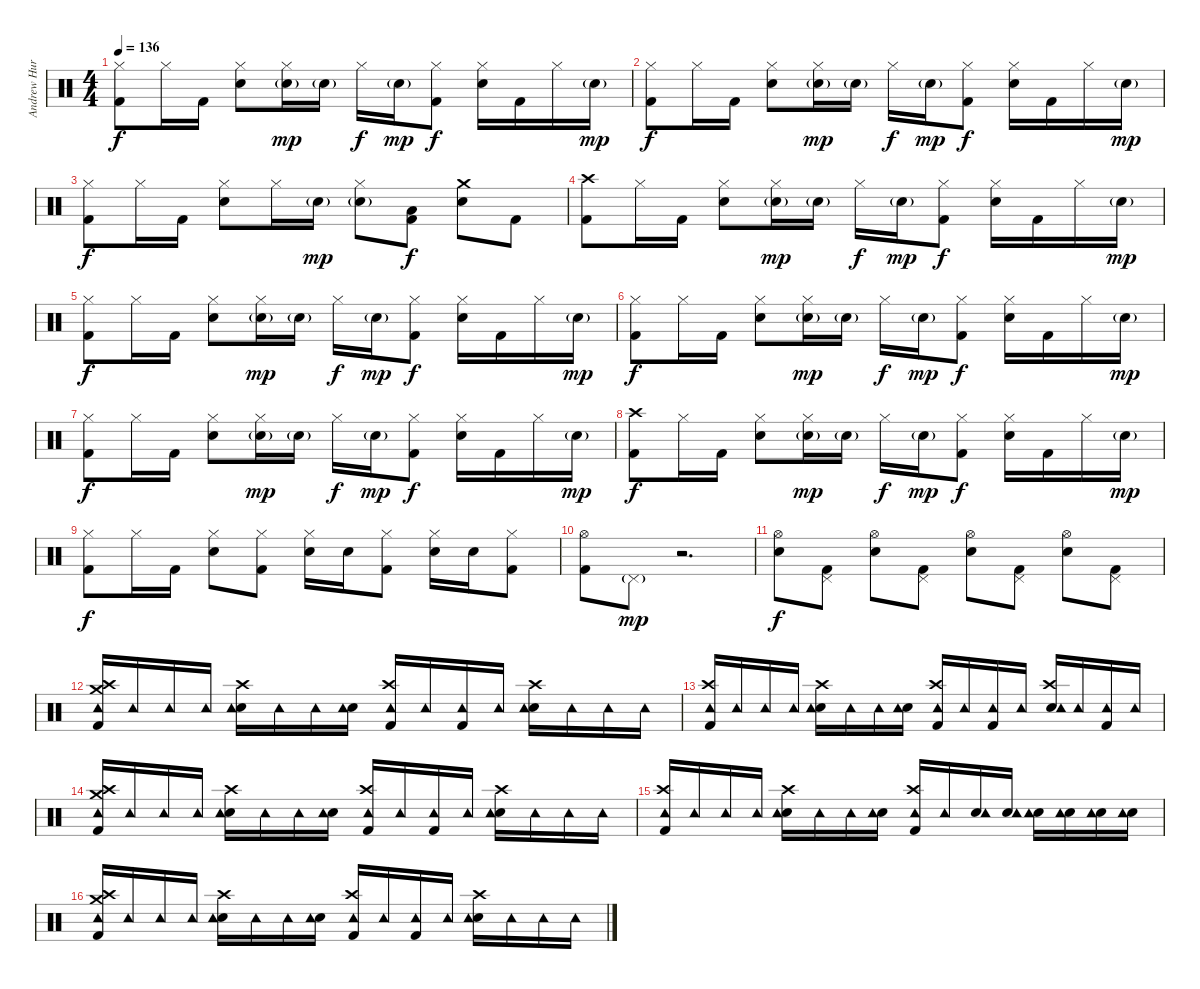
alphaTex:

\track ("Andrew Hurley (Drums)" "Andrew Hur") {instrument percussion}
\staff {score}
\articulation defaults
\ts (4 4)
\tempo 136
\clef neutral
\ks c
("Hi-Hat (closed)" "Kick (hit) 2").8{dy f} "Hi-Hat (closed)".16 "Kick (hit) 2".16 ("Hi-Hat (closed)" "Snare (hit) 2").8 ("Hi-Hat (closed)" "Snare (hit) 2"{g}).16{dy mp} "Snare (hit) 2"{g}.16 "Hi-Hat (closed)".16{dy f} "Snare (hit) 2"{g}.16{dy mp} ("Hi-Hat (closed)" "Kick (hit) 2").8{dy f} ("Hi-Hat (closed)" "Snare (hit) 2").16 "Kick (hit) 2".16 "Hi-Hat (closed)".16 "Snare (hit) 2"{g}.16{dy mp} |
("Hi-Hat (closed)" "Kick (hit) 2").8{dy f} "Hi-Hat (closed)".16 "Kick (hit) 2".16 ("Hi-Hat (closed)" "Snare (hit) 2").8 ("Hi-Hat (closed)" "Snare (hit) 2"{g}).16{dy mp} "Snare (hit) 2"{g}.16 "Hi-Hat (closed)".16{dy f} "Snare (hit) 2"{g}.16{dy mp} ("Hi-Hat (closed)" "Kick (hit) 2").8{dy f} ("Hi-Hat (closed)" "Snare (hit) 2").16 "Kick (hit) 2".16 "Hi-Hat (closed)".16 "Snare (hit) 2"{g}.16{dy mp} |
("Hi-Hat (closed)" "Kick (hit) 2").8{dy f} "Hi-Hat (closed)".16 "Kick (hit) 2".16 ("Hi-Hat (closed)" "Snare (hit) 2").8 "Hi-Hat (closed)".16 "Snare (hit) 2"{g}.16{dy mp} ("Hi-Hat (closed)" "Snare (hit) 2"{g}).8 ("Low Tom (hit)" "Kick (hit) 2").8{dy f} ("Crash medium (hit)" "Snare (hit) 2").8 "Kick (hit) 2".8 |
("Crash high (hit)" "Kick (hit) 2").8 "Hi-Hat (closed)".16 "Kick (hit) 2".16 ("Hi-Hat (closed)" "Snare (hit) 2").8 ("Hi-Hat (closed)" "Snare (hit) 2"{g}).16{dy mp} "Snare (hit) 2"{g}.16 "Hi-Hat (closed)".16{dy f} "Snare (hit) 2"{g}.16{dy mp} ("Hi-Hat (closed)" "Kick (hit) 2").8{dy f} ("Hi-Hat (closed)" "Snare (hit) 2").16 "Kick (hit) 2".16 "Hi-Hat (closed)".16 "Snare (hit) 2"{g}.16{dy mp} |
("Hi-Hat (closed)" "Kick (hit) 2").8{dy f} "Hi-Hat (closed)".16 "Kick (hit) 2".16 ("Hi-Hat (closed)" "Snare (hit) 2").8 ("Hi-Hat (closed)" "Snare (hit) 2"{g}).16{dy mp} "Snare (hit) 2"{g}.16 "Hi-Hat (closed)".16{dy f} "Snare (hit) 2"{g}.16{dy mp} ("Hi-Hat (closed)" "Kick (hit) 2").8{dy f} ("Hi-Hat (closed)" "Snare (hit) 2").16 "Kick (hit) 2".16 "Hi-Hat (closed)".16 "Snare (hit) 2"{g}.16{dy mp} |
("Hi-Hat (closed)" "Kick (hit) 2").8{dy f} "Hi-Hat (closed)".16 "Kick (hit) 2".16 ("Hi-Hat (closed)" "Snare (hit) 2").8 ("Hi-Hat (closed)" "Snare (hit) 2"{g}).16{dy mp} "Snare (hit) 2"{g}.16 "Hi-Hat (closed)".16{dy f} "Snare (hit) 2"{g}.16{dy mp} ("Hi-Hat (closed)" "Kick (hit) 2").8{dy f} ("Hi-Hat (closed)" "Snare (hit) 2").16 "Kick (hit) 2".16 "Hi-Hat (closed)".16 "Snare (hit) 2"{g}.16{dy mp} |
("Hi-Hat (closed)" "Kick (hit) 2").8{dy f} "Hi-Hat (closed)".16 "Kick (hit) 2".16 ("Hi-Hat (closed)" "Snare (hit) 2").8 ("Hi-Hat (closed)" "Snare (hit) 2"{g}).16{dy mp} "Snare (hit) 2"{g}.16 "Hi-Hat (closed)".16{dy f} "Snare (hit) 2"{g}.16{dy mp} ("Hi-Hat (closed)" "Kick (hit) 2").8{dy f} ("Hi-Hat (closed)" "Snare (hit) 2").16 "Kick (hit) 2".16 "Hi-Hat (closed)".16 "Snare (hit) 2"{g}.16{dy mp} |
("Crash high (hit)" "Kick (hit) 2").8{dy f} "Hi-Hat (closed)".16 "Kick (hit) 2".16 ("Hi-Hat (closed)" "Snare (hit) 2").8 ("Hi-Hat (closed)" "Snare (hit) 2"{g}).16{dy mp} "Snare (hit) 2"{g}.16 "Hi-Hat (closed)".16{dy f} "Snare (hit) 2"{g}.16{dy mp} ("Hi-Hat (closed)" "Kick (hit) 2").8{dy f} ("Hi-Hat (closed)" "Snare (hit) 2").16 "Kick (hit) 2".16 "Hi-Hat (closed)".16 "Snare (hit) 2"{g}.16{dy mp} |
("Hi-Hat (closed)" "Kick (hit) 2").8{dy f} "Hi-Hat (closed)".16 "Kick (hit) 2".16 ("Hi-Hat (closed)" "Snare (hit) 2").8 ("Hi-Hat (closed)" "Kick (hit) 2").8 ("Hi-Hat (closed)" "Snare (hit) 2").16 "Snare (hit) 2".16 ("Hi-Hat (closed)" "Kick (hit) 2").8 ("Hi-Hat (closed)" "Snare (hit) 2").16 "Snare (hit) 2".16 ("Hi-Hat (closed)" "Kick (hit) 2").8 |
("Hi-Hat (open)" "Kick (hit) 2").8 "Pedal Hi-Hat (hit)"{g}.8{dy mp} r.2{d} |
("Hi-Hat (open)" "Snare (hit) 2").8{dy f} ("Pedal Hi-Hat (hit)" "Kick (hit) 2").8 ("Hi-Hat (open)" "Snare (hit) 2").8 ("Pedal Hi-Hat (hit)" "Kick (hit) 2").8 ("Hi-Hat (open)" "Snare (hit) 2").8 ("Pedal Hi-Hat (hit)" "Kick (hit) 2").8 ("Hi-Hat (open)" "Snare (hit) 2").8 ("Pedal Hi-Hat (hit)" "Kick (hit) 2").8 |
("Crash high (hit)" "Crash medium (hit)" "Kick (hit) 2" "Tambourine (hit)").16 "Tambourine (hit)".16 "Tambourine (hit)".16 "Tambourine (hit)".16 ("Crash high (hit)" "Snare (hit) 2" "Tambourine (hit)").16 "Tambourine (hit)".16 "Tambourine (hit)".16 ("Snare (hit) 2" "Tambourine (hit)").16 ("Crash high (hit)" "Kick (hit) 2" "Tambourine (hit)").16 "Tambourine (hit)".16 ("Kick (hit) 2" "Tambourine (hit)").16 "Tambourine (hit)".16 ("Crash high (hit)" "Snare (hit) 2" "Tambourine (hit)").16 "Tambourine (hit)".16 "Tambourine (hit)".16 "Tambourine (hit)".16 |
("Crash high (hit)" "Kick (hit) 2" "Tambourine (hit)").16 "Tambourine (hit)".16 "Tambourine (hit)".16 "Tambourine (hit)".16 ("Crash high (hit)" "Snare (hit) 2" "Tambourine (hit)").16 "Tambourine (hit)".16 "Tambourine (hit)".16 ("Snare (hit) 2" "Tambourine (hit)").16 ("Crash high (hit)" "Kick (hit) 2" "Tambourine (hit)").16 "Tambourine (hit)".16 ("Kick (hit) 2" "Tambourine (hit)").16 "Tambourine (hit)".16 ("Crash high (hit)" "Snare (hit) 2" "Tambourine (hit)").16 "Tambourine (hit)".16 ("Kick (hit) 2" "Tambourine (hit)").16 "Tambourine (hit)".16 |
("Crash high (hit)" "Crash medium (hit)" "Kick (hit) 2" "Tambourine (hit)").16 "Tambourine (hit)".16 "Tambourine (hit)".16 "Tambourine (hit)".16 ("Crash high (hit)" "Snare (hit) 2" "Tambourine (hit)").16 "Tambourine (hit)".16 "Tambourine (hit)".16 ("Snare (hit) 2" "Tambourine (hit)").16 ("Crash high (hit)" "Kick (hit) 2" "Tambourine (hit)").16 "Tambourine (hit)".16 ("Kick (hit) 2" "Tambourine (hit)").16 "Tambourine (hit)".16 ("Crash high (hit)" "Snare (hit) 2" "Tambourine (hit)").16 "Tambourine (hit)".16 "Tambourine (hit)".16 "Tambourine (hit)".16 |
("Crash high (hit)" "Kick (hit) 2" "Tambourine (hit)").16 "Tambourine (hit)".16 "Tambourine (hit)".16 "Tambourine (hit)".16 ("Crash high (hit)" "Snare (hit) 2" "Tambourine (hit)").16 "Tambourine (hit)".16 "Tambourine (hit)".16 ("Snare (hit) 2" "Tambourine (hit)").16 ("Crash high (hit)" "Kick (hit) 2" "Tambourine (hit)").16 "Tambourine (hit)".16 ("Snare (hit) 2" "Tambourine (hit)").16 ("Snare (hit) 2" "Tambourine (hit)").16 ("Snare (hit) 2" "Tambourine (hit)").16 ("Snare (hit) 2" "Tambourine (hit)").16 ("Snare (hit) 2" "Tambourine (hit)").16 ("Snare (hit) 2" "Tambourine (hit)").16 |
("Crash high (hit)" "Crash medium (hit)" "Kick (hit) 2" "Tambourine (hit)").16 "Tambourine (hit)".16 "Tambourine (hit)".16 "Tambourine (hit)".16 ("Crash high (hit)" "Snare (hit) 2" "Tambourine (hit)").16 "Tambourine (hit)".16 "Tambourine (hit)".16 ("Snare (hit) 2" "Tambourine (hit)").16 ("Crash high (hit)" "Kick (hit) 2" "Tambourine (hit)").16 "Tambourine (hit)".16 ("Kick (hit) 2" "Tambourine (hit)").16 "Tambourine (hit)".16 ("Crash high (hit)" "Snare (hit) 2" "Tambourine (hit)").16 "Tambourine (hit)".16 "Tambourine (hit)".16 "Tambourine (hit)".16
